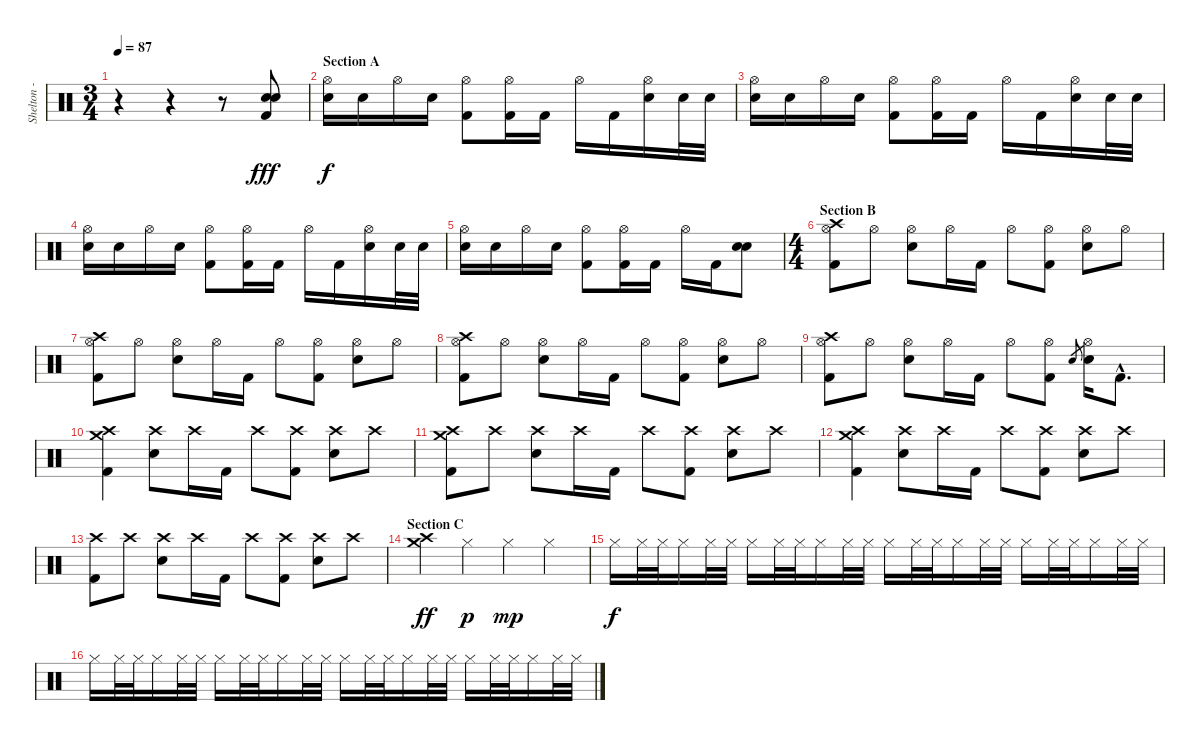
\track ("Shelton - Drums" "Shelton - ") {instrument percussion}
\staff {score}
\articulation defaults
\ts (3 4)
\tempo 87
\clef neutral
\ks c
r.4{dy fff} r.4 r.8 ("Electric Snare (hit)" "Electric Snare (hit)" "Kick (hit) 2").8 |
\section ("" "Section A")
("Hi-Hat (open)" "Electric Snare (hit)").16{dy f} "Electric Snare (hit)".16 "Hi-Hat (open)".16 "Electric Snare (hit)".16 ("Hi-Hat (open)" "Kick (hit) 2").8 ("Hi-Hat (open)" "Kick (hit) 2").16 "Kick (hit) 2".16 "Hi-Hat (open)".16 "Kick (hit) 2".16 ("Hi-Hat (open)" "Electric Snare (hit)").16 "Electric Snare (hit)".32 "Electric Snare (hit)".32 |
("Hi-Hat (open)" "Electric Snare (hit)").16 "Electric Snare (hit)".16 "Hi-Hat (open)".16 "Electric Snare (hit)".16 ("Hi-Hat (open)" "Kick (hit) 2").8 ("Hi-Hat (open)" "Kick (hit) 2").16 "Kick (hit) 2".16 "Hi-Hat (open)".16 "Kick (hit) 2".16 ("Hi-Hat (open)" "Electric Snare (hit)").16 "Electric Snare (hit)".32 "Electric Snare (hit)".32 |
("Hi-Hat (open)" "Electric Snare (hit)").16 "Electric Snare (hit)".16 "Hi-Hat (open)".16 "Electric Snare (hit)".16 ("Hi-Hat (open)" "Kick (hit) 2").8 ("Hi-Hat (open)" "Kick (hit) 2").16 "Kick (hit) 2".16 "Hi-Hat (open)".16 "Kick (hit) 2".16 ("Hi-Hat (open)" "Electric Snare (hit)").16 "Electric Snare (hit)".32 "Electric Snare (hit)".32 |
("Hi-Hat (open)" "Electric Snare (hit)").16 "Electric Snare (hit)".16 "Hi-Hat (open)".16 "Electric Snare (hit)".16 ("Hi-Hat (open)" "Kick (hit) 2").8 ("Hi-Hat (open)" "Kick (hit) 2").16 "Kick (hit) 2".16 "Hi-Hat (open)".16 "Kick (hit) 2".16 ("Electric Snare (hit)" "Electric Snare (hit)").8{bu 120} |
\ts (4 4)
\section ("" "Section B")
("Hi-Hat (open)" "Crash high (hit)" "Kick (hit) 2").8 "Hi-Hat (open)".8 ("Hi-Hat (open)" "Electric Snare (hit)").8 "Hi-Hat (open)".16 "Kick (hit) 2".16 "Hi-Hat (open)".8 ("Hi-Hat (open)" "Kick (hit) 2").8 ("Hi-Hat (open)" "Electric Snare (hit)").8 "Hi-Hat (open)".8 |
("Hi-Hat (open)" "Crash high (hit)" "Kick (hit) 2").8 "Hi-Hat (open)".8 ("Hi-Hat (open)" "Electric Snare (hit)").8 "Hi-Hat (open)".16 "Kick (hit) 2".16 "Hi-Hat (open)".8 ("Hi-Hat (open)" "Kick (hit) 2").8 ("Hi-Hat (open)" "Electric Snare (hit)").8 "Hi-Hat (open)".8 |
("Hi-Hat (open)" "Crash high (hit)" "Kick (hit) 2").8 "Hi-Hat (open)".8 ("Hi-Hat (open)" "Electric Snare (hit)").8 "Hi-Hat (open)".16 "Kick (hit) 2".16 "Hi-Hat (open)".8 ("Hi-Hat (open)" "Kick (hit) 2").8 ("Hi-Hat (open)" "Electric Snare (hit)").8 "Hi-Hat (open)".8 |
("Hi-Hat (open)" "Crash high (hit)" "Kick (hit) 2").8 "Hi-Hat (open)".8 ("Hi-Hat (open)" "Electric Snare (hit)").8 "Hi-Hat (open)".16 "Kick (hit) 2".16 "Hi-Hat (open)".8 ("Hi-Hat (open)" "Kick (hit) 2").8 "Electric Snare (hit)".8{gr} ("Hi-Hat (open)" "Electric Snare (hit)").16 "Kick (hit) 2"{hac}.8{d} |
("Crash high (hit)" "Crash medium (hit)" "Kick (hit) 2").4 ("Crash high (hit)" "Electric Snare (hit)").8 "Crash high (hit)".16 "Kick (hit) 2".16 "Crash high (hit)".8 ("Crash high (hit)" "Kick (hit) 2").8 ("Crash high (hit)" "Electric Snare (hit)").8 "Crash high (hit)".8 |
("Crash high (hit)" "Crash medium (hit)" "Kick (hit) 2").8 "Crash high (hit)".8 ("Crash high (hit)" "Electric Snare (hit)").8 "Crash high (hit)".16 "Kick (hit) 2".16 "Crash high (hit)".8 ("Crash high (hit)" "Kick (hit) 2").8 ("Crash high (hit)" "Electric Snare (hit)").8 "Crash high (hit)".8 |
("Crash high (hit)" "Crash medium (hit)" "Kick (hit) 2").4 ("Crash high (hit)" "Electric Snare (hit)").8 "Crash high (hit)".16 "Kick (hit) 2".16 "Crash high (hit)".8 ("Crash high (hit)" "Kick (hit) 2").8 ("Crash high (hit)" "Electric Snare (hit)").8 "Crash high (hit)".8 |
("Crash high (hit)" "Kick (hit) 2").8 "Crash high (hit)".8 ("Crash high (hit)" "Electric Snare (hit)").8 "Crash high (hit)".16 "Kick (hit) 2".16 "Crash high (hit)".8 ("Crash high (hit)" "Kick (hit) 2").8 ("Crash high (hit)" "Electric Snare (hit)").8 "Crash high (hit)".8 |
\section ("" "Section C")
("Crash high (hit)" "Crash medium (hit)").4{dy ff} "Hi-Hat (closed)".4{dy p} "Hi-Hat (closed)".4{dy mp} "Hi-Hat (closed)".4 |
"Hi-Hat (closed)".16{dy f volume 11} "Hi-Hat (closed)".32 "Hi-Hat (closed)".32 "Hi-Hat (closed)".16 "Hi-Hat (closed)".32 "Hi-Hat (closed)".32 "Hi-Hat (closed)".16 "Hi-Hat (closed)".32 "Hi-Hat (closed)".32 "Hi-Hat (closed)".16 "Hi-Hat (closed)".32 "Hi-Hat (closed)".32 "Hi-Hat (closed)".16 "Hi-Hat (closed)".32 "Hi-Hat (closed)".32 "Hi-Hat (closed)".16 "Hi-Hat (closed)".32 "Hi-Hat (closed)".32 "Hi-Hat (closed)".16 "Hi-Hat (closed)".32 "Hi-Hat (closed)".32 "Hi-Hat (closed)".16 "Hi-Hat (closed)".32 "Hi-Hat (closed)".32 |
"Hi-Hat (closed)".16{volume 13} "Hi-Hat (closed)".32 "Hi-Hat (closed)".32 "Hi-Hat (closed)".16 "Hi-Hat (closed)".32 "Hi-Hat (closed)".32 "Hi-Hat (closed)".16 "Hi-Hat (closed)".32 "Hi-Hat (closed)".32 "Hi-Hat (closed)".16 "Hi-Hat (closed)".32 "Hi-Hat (closed)".32 "Hi-Hat (closed)".16 "Hi-Hat (closed)".32 "Hi-Hat (closed)".32 "Hi-Hat (closed)".16 "Hi-Hat (closed)".32 "Hi-Hat (closed)".32 "Hi-Hat (closed)".16 "Hi-Hat (closed)".32 "Hi-Hat (closed)".32 "Hi-Hat (closed)".16 "Hi-Hat (closed)".32 "Hi-Hat (closed)".32
